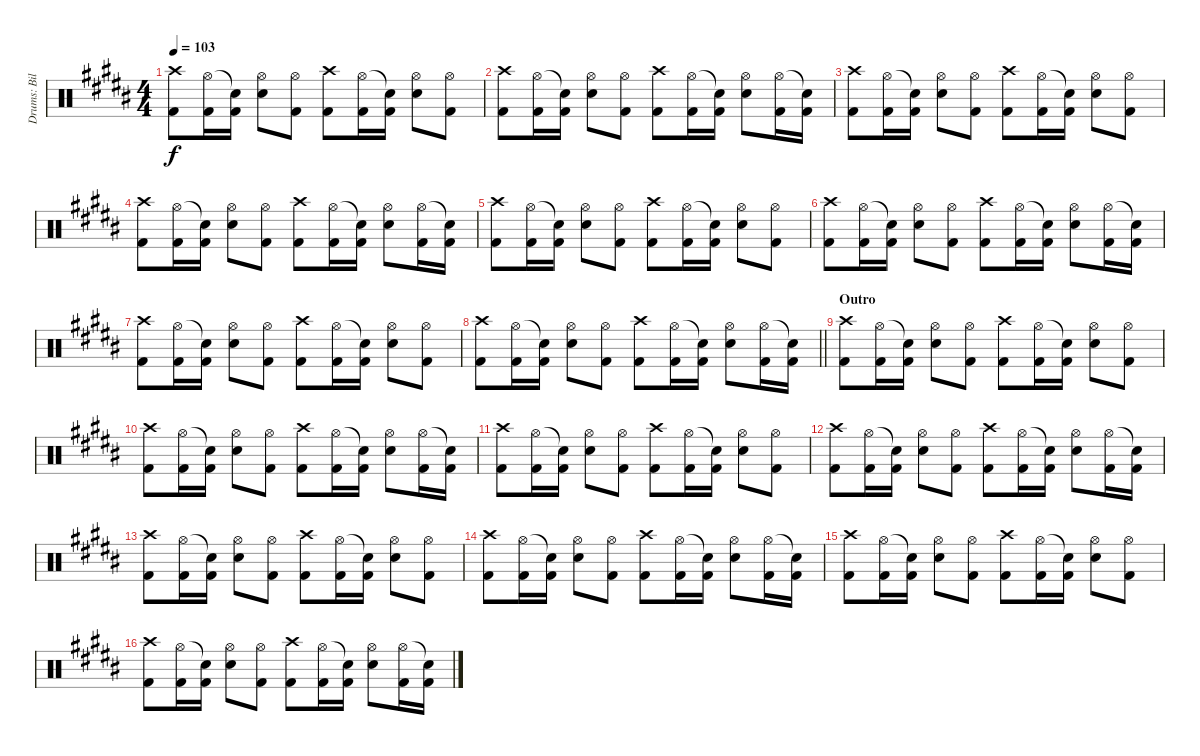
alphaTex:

\track ("Drums: Bill" "Drums: Bil") {instrument percussion}
\staff {score}
\articulation defaults
\ts (4 4)
\tempo 103
\clef neutral
\ks b
("Crash high (hit)" "Kick (hit) 2").8{dy f} ("Hi-Hat (open)" "Kick (hit) 2").16 ("Snare (hit)"{t} "Kick (hit) 2").16 ("Hi-Hat (open)" "Electric Snare (hit)").8 ("Hi-Hat (open)" "Kick (hit) 2").8 ("Crash high (hit)" "Kick (hit) 2").8 ("Hi-Hat (open)" "Kick (hit) 2").16 ("Snare (hit)"{t} "Kick (hit) 2").16 ("Hi-Hat (open)" "Electric Snare (hit)").8 ("Hi-Hat (open)" "Kick (hit) 2").8 |
("Crash high (hit)" "Kick (hit) 2").8 ("Hi-Hat (open)" "Kick (hit) 2").16 ("Snare (hit)"{t} "Kick (hit) 2").16 ("Hi-Hat (open)" "Electric Snare (hit)").8 ("Hi-Hat (open)" "Kick (hit) 2").8 ("Crash high (hit)" "Kick (hit) 2").8 ("Hi-Hat (open)" "Kick (hit) 2").16 ("Snare (hit)"{t} "Kick (hit) 2").16 ("Hi-Hat (open)" "Electric Snare (hit)").8 ("Hi-Hat (open)" "Kick (hit) 2").16 ("Snare (hit)"{t} "Kick (hit) 2").16 |
("Crash high (hit)" "Kick (hit) 2").8 ("Hi-Hat (open)" "Kick (hit) 2").16 ("Snare (hit)"{t} "Kick (hit) 2").16 ("Hi-Hat (open)" "Electric Snare (hit)").8 ("Hi-Hat (open)" "Kick (hit) 2").8 ("Crash high (hit)" "Kick (hit) 2").8 ("Hi-Hat (open)" "Kick (hit) 2").16 ("Snare (hit)"{t} "Kick (hit) 2").16 ("Hi-Hat (open)" "Electric Snare (hit)").8 ("Hi-Hat (open)" "Kick (hit) 2").8 |
("Crash high (hit)" "Kick (hit) 2").8 ("Hi-Hat (open)" "Kick (hit) 2").16 ("Snare (hit)"{t} "Kick (hit) 2").16 ("Hi-Hat (open)" "Electric Snare (hit)").8 ("Hi-Hat (open)" "Kick (hit) 2").8 ("Crash high (hit)" "Kick (hit) 2").8 ("Hi-Hat (open)" "Kick (hit) 2").16 ("Snare (hit)"{t} "Kick (hit) 2").16 ("Hi-Hat (open)" "Electric Snare (hit)").8 ("Hi-Hat (open)" "Kick (hit) 2").16 ("Snare (hit)"{t} "Kick (hit) 2").16 |
("Crash high (hit)" "Kick (hit) 2").8 ("Hi-Hat (open)" "Kick (hit) 2").16 ("Snare (hit)"{t} "Kick (hit) 2").16 ("Hi-Hat (open)" "Electric Snare (hit)").8 ("Hi-Hat (open)" "Kick (hit) 2").8 ("Crash high (hit)" "Kick (hit) 2").8 ("Hi-Hat (open)" "Kick (hit) 2").16 ("Snare (hit)"{t} "Kick (hit) 2").16 ("Hi-Hat (open)" "Electric Snare (hit)").8 ("Hi-Hat (open)" "Kick (hit) 2").8 |
("Crash high (hit)" "Kick (hit) 2").8 ("Hi-Hat (open)" "Kick (hit) 2").16 ("Snare (hit)"{t} "Kick (hit) 2").16 ("Hi-Hat (open)" "Electric Snare (hit)").8 ("Hi-Hat (open)" "Kick (hit) 2").8 ("Crash high (hit)" "Kick (hit) 2").8 ("Hi-Hat (open)" "Kick (hit) 2").16 ("Snare (hit)"{t} "Kick (hit) 2").16 ("Hi-Hat (open)" "Electric Snare (hit)").8 ("Hi-Hat (open)" "Kick (hit) 2").16 ("Snare (hit)"{t} "Kick (hit) 2").16 |
("Crash high (hit)" "Kick (hit) 2").8 ("Hi-Hat (open)" "Kick (hit) 2").16 ("Snare (hit)"{t} "Kick (hit) 2").16 ("Hi-Hat (open)" "Electric Snare (hit)").8 ("Hi-Hat (open)" "Kick (hit) 2").8 ("Crash high (hit)" "Kick (hit) 2").8 ("Hi-Hat (open)" "Kick (hit) 2").16 ("Snare (hit)"{t} "Kick (hit) 2").16 ("Hi-Hat (open)" "Electric Snare (hit)").8 ("Hi-Hat (open)" "Kick (hit) 2").8 |
\barLineRight lightlight
("Crash high (hit)" "Kick (hit) 2").8 ("Hi-Hat (open)" "Kick (hit) 2").16 ("Snare (hit)"{t} "Kick (hit) 2").16 ("Hi-Hat (open)" "Electric Snare (hit)").8 ("Hi-Hat (open)" "Kick (hit) 2").8 ("Crash high (hit)" "Kick (hit) 2").8 ("Hi-Hat (open)" "Kick (hit) 2").16 ("Snare (hit)"{t} "Kick (hit) 2").16 ("Hi-Hat (open)" "Electric Snare (hit)").8 ("Hi-Hat (open)" "Kick (hit) 2").16 ("Snare (hit)"{t} "Kick (hit) 2").16 |
\section ("" "Outro")
("Crash high (hit)" "Kick (hit) 2").8 ("Hi-Hat (open)" "Kick (hit) 2").16 ("Snare (hit)"{t} "Kick (hit) 2").16 ("Hi-Hat (open)" "Electric Snare (hit)").8 ("Hi-Hat (open)" "Kick (hit) 2").8 ("Crash high (hit)" "Kick (hit) 2").8 ("Hi-Hat (open)" "Kick (hit) 2").16 ("Snare (hit)"{t} "Kick (hit) 2").16 ("Hi-Hat (open)" "Electric Snare (hit)").8 ("Hi-Hat (open)" "Kick (hit) 2").8 |
("Crash high (hit)" "Kick (hit) 2").8 ("Hi-Hat (open)" "Kick (hit) 2").16 ("Snare (hit)"{t} "Kick (hit) 2").16 ("Hi-Hat (open)" "Electric Snare (hit)").8 ("Hi-Hat (open)" "Kick (hit) 2").8 ("Crash high (hit)" "Kick (hit) 2").8 ("Hi-Hat (open)" "Kick (hit) 2").16 ("Snare (hit)"{t} "Kick (hit) 2").16 ("Hi-Hat (open)" "Electric Snare (hit)").8 ("Hi-Hat (open)" "Kick (hit) 2").16 ("Snare (hit)"{t} "Kick (hit) 2").16 |
("Crash high (hit)" "Kick (hit) 2").8 ("Hi-Hat (open)" "Kick (hit) 2").16 ("Snare (hit)"{t} "Kick (hit) 2").16 ("Hi-Hat (open)" "Electric Snare (hit)").8 ("Hi-Hat (open)" "Kick (hit) 2").8 ("Crash high (hit)" "Kick (hit) 2").8 ("Hi-Hat (open)" "Kick (hit) 2").16 ("Snare (hit)"{t} "Kick (hit) 2").16 ("Hi-Hat (open)" "Electric Snare (hit)").8 ("Hi-Hat (open)" "Kick (hit) 2").8 |
("Crash high (hit)" "Kick (hit) 2").8 ("Hi-Hat (open)" "Kick (hit) 2").16 ("Snare (hit)"{t} "Kick (hit) 2").16 ("Hi-Hat (open)" "Electric Snare (hit)").8 ("Hi-Hat (open)" "Kick (hit) 2").8 ("Crash high (hit)" "Kick (hit) 2").8 ("Hi-Hat (open)" "Kick (hit) 2").16 ("Snare (hit)"{t} "Kick (hit) 2").16 ("Hi-Hat (open)" "Electric Snare (hit)").8 ("Hi-Hat (open)" "Kick (hit) 2").16 ("Snare (hit)"{t} "Kick (hit) 2").16 |
("Crash high (hit)" "Kick (hit) 2").8 ("Hi-Hat (open)" "Kick (hit) 2").16 ("Snare (hit)"{t} "Kick (hit) 2").16 ("Hi-Hat (open)" "Electric Snare (hit)").8 ("Hi-Hat (open)" "Kick (hit) 2").8 ("Crash high (hit)" "Kick (hit) 2").8 ("Hi-Hat (open)" "Kick (hit) 2").16 ("Snare (hit)"{t} "Kick (hit) 2").16 ("Hi-Hat (open)" "Electric Snare (hit)").8 ("Hi-Hat (open)" "Kick (hit) 2").8 |
("Crash high (hit)" "Kick (hit) 2").8 ("Hi-Hat (open)" "Kick (hit) 2").16 ("Snare (hit)"{t} "Kick (hit) 2").16 ("Hi-Hat (open)" "Electric Snare (hit)").8 ("Hi-Hat (open)" "Kick (hit) 2").8 ("Crash high (hit)" "Kick (hit) 2").8 ("Hi-Hat (open)" "Kick (hit) 2").16 ("Snare (hit)"{t} "Kick (hit) 2").16 ("Hi-Hat (open)" "Electric Snare (hit)").8 ("Hi-Hat (open)" "Kick (hit) 2").16 ("Snare (hit)"{t} "Kick (hit) 2").16 |
("Crash high (hit)" "Kick (hit) 2").8 ("Hi-Hat (open)" "Kick (hit) 2").16 ("Snare (hit)"{t} "Kick (hit) 2").16 ("Hi-Hat (open)" "Electric Snare (hit)").8 ("Hi-Hat (open)" "Kick (hit) 2").8 ("Crash high (hit)" "Kick (hit) 2").8 ("Hi-Hat (open)" "Kick (hit) 2").16 ("Snare (hit)"{t} "Kick (hit) 2").16 ("Hi-Hat (open)" "Electric Snare (hit)").8 ("Hi-Hat (open)" "Kick (hit) 2").8 |
("Crash high (hit)" "Kick (hit) 2").8 ("Hi-Hat (open)" "Kick (hit) 2").16 ("Snare (hit)"{t} "Kick (hit) 2").16 ("Hi-Hat (open)" "Electric Snare (hit)").8 ("Hi-Hat (open)" "Kick (hit) 2").8 ("Crash high (hit)" "Kick (hit) 2").8 ("Hi-Hat (open)" "Kick (hit) 2").16 ("Snare (hit)"{t} "Kick (hit) 2").16 ("Hi-Hat (open)" "Electric Snare (hit)").8 ("Hi-Hat (open)" "Kick (hit) 2").16 ("Snare (hit)"{t} "Kick (hit) 2").16
